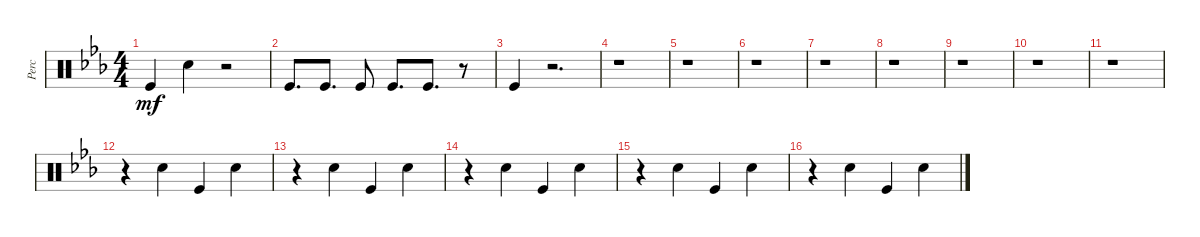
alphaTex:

\defaultSystemsLayout 4
\bracketExtendMode groupsimilarinstruments
\otherSystemsTrackNameOrientation horizontal
\track ("Percussions" "Perc") {instrument percussion}
\staff {score}
\articulation defaults
\ts (4 4)
\tempo (140 hide)
\clef neutral
\ks cminor "Kick (hit)".4{dy mf} "Snare (hit) 2".4
r.2 |
"Kick (hit)".8{d} "Kick (hit)".8{d} "Kick (hit)".8 "Kick (hit)".8{d} "Kick (hit)".8{d} r.8 |
"Kick (hit)".4 r.2{d} |
r.1 |
r.1 |
r.1 |
r.1 |
r.1 |
r.1 |
r.1 |
r.1 |
r.4 "Snare (hit) 2".4 "Kick (hit)".4 "Snare (hit) 2".4 |
r.4 "Snare (hit) 2".4 "Kick (hit)".4 "Snare (hit) 2".4 |
r.4 "Snare (hit) 2".4 "Kick (hit)".4 "Snare (hit) 2".4 |
r.4 "Snare (hit) 2".4 "Kick (hit)".4 "Snare (hit) 2".4 |
r.4 "Snare (hit) 2".4 "Kick (hit)".4 "Snare (hit) 2".4
